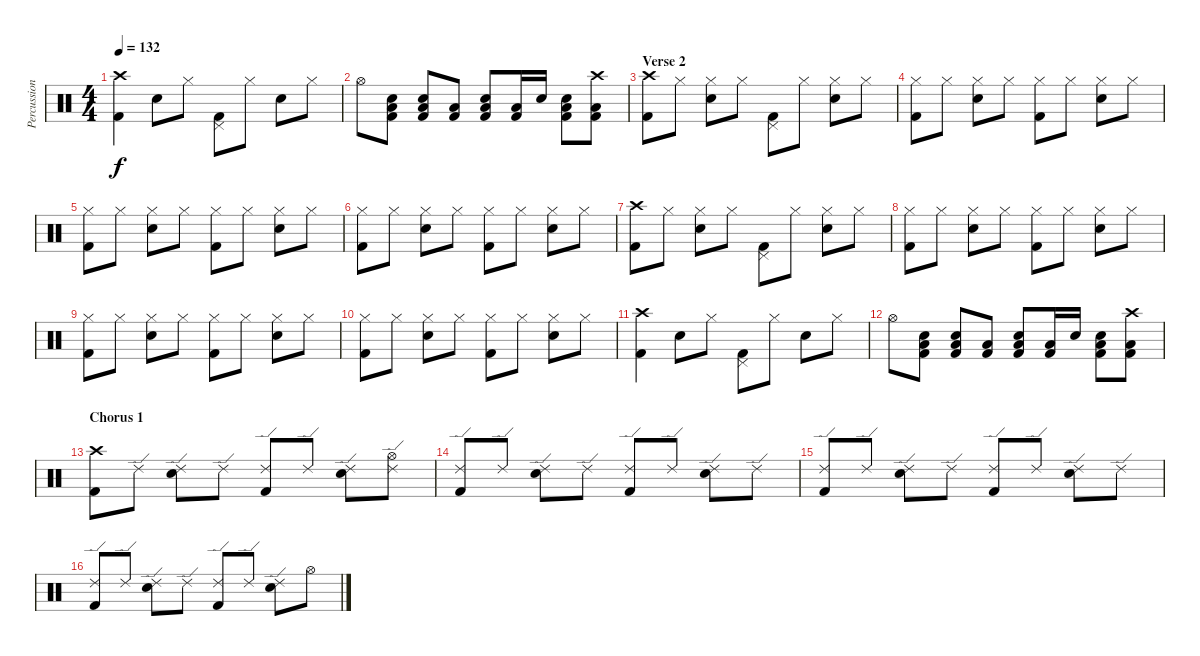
\track ("Percussion" "Percussion") {instrument percussion}
\staff {score}
\articulation defaults
\ts (4 4)
\tempo 132
\clef neutral
\ks c
("Crash high (hit)" "Kick (hit) 2").4{dy f} "Snare (hit) 2".8 "Hi-Hat (closed)".8 ("Pedal Hi-Hat (hit)" "Kick (hit) 2").8 "Hi-Hat (closed)".8 "Snare (hit) 2".8 "Hi-Hat (closed)".8 |
"Hi-Hat (open)".8 ("Low Tom (hit)" "Kick (hit) 2" "Snare (hit) 2").8 ("Low Tom (hit)" "Kick (hit) 2" "Snare (hit) 2").8 ("Low Tom (hit)" "Kick (hit) 2").8 ("Low Tom (hit)" "Kick (hit) 2" "Snare (hit) 2").8 ("Low Tom (hit)" "Kick (hit) 2").16 "Snare (hit) 2".16 ("Low Tom (hit)" "Kick (hit) 2" "Snare (hit) 2").8 ("Low Tom (hit)" "Kick (hit) 2" "Crash high (hit)").8 |
\section ("" "Verse 2")
("Crash high (hit)" "Kick (hit) 2").8 "Hi-Hat (closed)".8 ("Hi-Hat (closed)" "Snare (hit) 2").8 "Hi-Hat (closed)".8 ("Pedal Hi-Hat (hit)" "Kick (hit) 2").8 "Hi-Hat (closed)".8 ("Hi-Hat (closed)" "Snare (hit) 2").8 "Hi-Hat (closed)".8 |
("Hi-Hat (closed)" "Kick (hit) 2").8 "Hi-Hat (closed)".8 ("Hi-Hat (closed)" "Snare (hit) 2").8 "Hi-Hat (closed)".8 ("Hi-Hat (closed)" "Kick (hit) 2").8 "Hi-Hat (closed)".8 ("Hi-Hat (closed)" "Snare (hit) 2").8 "Hi-Hat (closed)".8 |
("Hi-Hat (closed)" "Kick (hit) 2").8 "Hi-Hat (closed)".8 ("Hi-Hat (closed)" "Snare (hit) 2").8 "Hi-Hat (closed)".8 ("Hi-Hat (closed)" "Kick (hit) 2").8 "Hi-Hat (closed)".8 ("Hi-Hat (closed)" "Snare (hit) 2").8 "Hi-Hat (closed)".8 |
("Hi-Hat (closed)" "Kick (hit) 2").8 "Hi-Hat (closed)".8 ("Hi-Hat (closed)" "Snare (hit) 2").8 "Hi-Hat (closed)".8 ("Hi-Hat (closed)" "Kick (hit) 2").8 "Hi-Hat (closed)".8 ("Hi-Hat (closed)" "Snare (hit) 2").8 "Hi-Hat (closed)".8 |
("Crash high (hit)" "Kick (hit) 2").8 "Hi-Hat (closed)".8 ("Hi-Hat (closed)" "Snare (hit) 2").8 "Hi-Hat (closed)".8 ("Pedal Hi-Hat (hit)" "Kick (hit) 2").8 "Hi-Hat (closed)".8 ("Hi-Hat (closed)" "Snare (hit) 2").8 "Hi-Hat (closed)".8 |
("Hi-Hat (closed)" "Kick (hit) 2").8 "Hi-Hat (closed)".8 ("Hi-Hat (closed)" "Snare (hit) 2").8 "Hi-Hat (closed)".8 ("Hi-Hat (closed)" "Kick (hit) 2").8 "Hi-Hat (closed)".8 ("Hi-Hat (closed)" "Snare (hit) 2").8 "Hi-Hat (closed)".8 |
("Hi-Hat (closed)" "Kick (hit) 2").8 "Hi-Hat (closed)".8 ("Hi-Hat (closed)" "Snare (hit) 2").8 "Hi-Hat (closed)".8 ("Hi-Hat (closed)" "Kick (hit) 2").8 "Hi-Hat (closed)".8 ("Hi-Hat (closed)" "Snare (hit) 2").8 "Hi-Hat (closed)".8 |
("Hi-Hat (closed)" "Kick (hit) 2").8 "Hi-Hat (closed)".8 ("Hi-Hat (closed)" "Snare (hit) 2").8 "Hi-Hat (closed)".8 ("Hi-Hat (closed)" "Kick (hit) 2").8 "Hi-Hat (closed)".8 ("Hi-Hat (closed)" "Snare (hit) 2").8 "Hi-Hat (closed)".8 |
("Crash high (hit)" "Kick (hit) 2").4 "Snare (hit) 2".8 "Hi-Hat (closed)".8 ("Pedal Hi-Hat (hit)" "Kick (hit) 2").8 "Hi-Hat (closed)".8 "Snare (hit) 2".8 "Hi-Hat (closed)".8 |
"Hi-Hat (open)".8 ("Low Tom (hit)" "Kick (hit) 2" "Snare (hit) 2").8 ("Low Tom (hit)" "Kick (hit) 2" "Snare (hit) 2").8 ("Low Tom (hit)" "Kick (hit) 2").8 ("Low Tom (hit)" "Kick (hit) 2" "Snare (hit) 2").8 ("Low Tom (hit)" "Kick (hit) 2").16 "Snare (hit) 2".16 ("Low Tom (hit)" "Kick (hit) 2" "Snare (hit) 2").8 ("Low Tom (hit)" "Kick (hit) 2" "Crash high (hit)").8 |
\section ("" "Chorus 1")
("Crash high (hit)" "Kick (hit) 2").8 "Ride (edge) 2".8 ("Ride (edge) 2" "Snare (hit) 2").8 "Ride (edge) 2".8 ("Ride (edge) 2" "Kick (hit) 2").8 "Ride (edge) 2".8 ("Ride (edge) 2" "Snare (hit) 2").8 ("Ride (edge) 2" "Hi-Hat (open)").8 |
("Ride (edge) 2" "Kick (hit) 2").8 "Ride (edge) 2".8 ("Ride (edge) 2" "Snare (hit) 2").8 "Ride (edge) 2".8 ("Ride (edge) 2" "Kick (hit) 2").8 "Ride (edge) 2".8 ("Ride (edge) 2" "Snare (hit) 2").8 "Ride (edge) 2".8 |
("Ride (edge) 2" "Kick (hit) 2").8 "Ride (edge) 2".8 ("Ride (edge) 2" "Snare (hit) 2").8 "Ride (edge) 2".8 ("Ride (edge) 2" "Kick (hit) 2").8 "Ride (edge) 2".8 ("Ride (edge) 2" "Snare (hit) 2").8 "Ride (edge) 2".8 |
("Ride (edge) 2" "Kick (hit) 2").8 "Ride (edge) 2".8 ("Ride (edge) 2" "Snare (hit) 2").8 "Ride (edge) 2".8 ("Ride (edge) 2" "Kick (hit) 2").8 "Ride (edge) 2".8 ("Ride (edge) 2" "Snare (hit) 2").8 "Hi-Hat (open)".8
